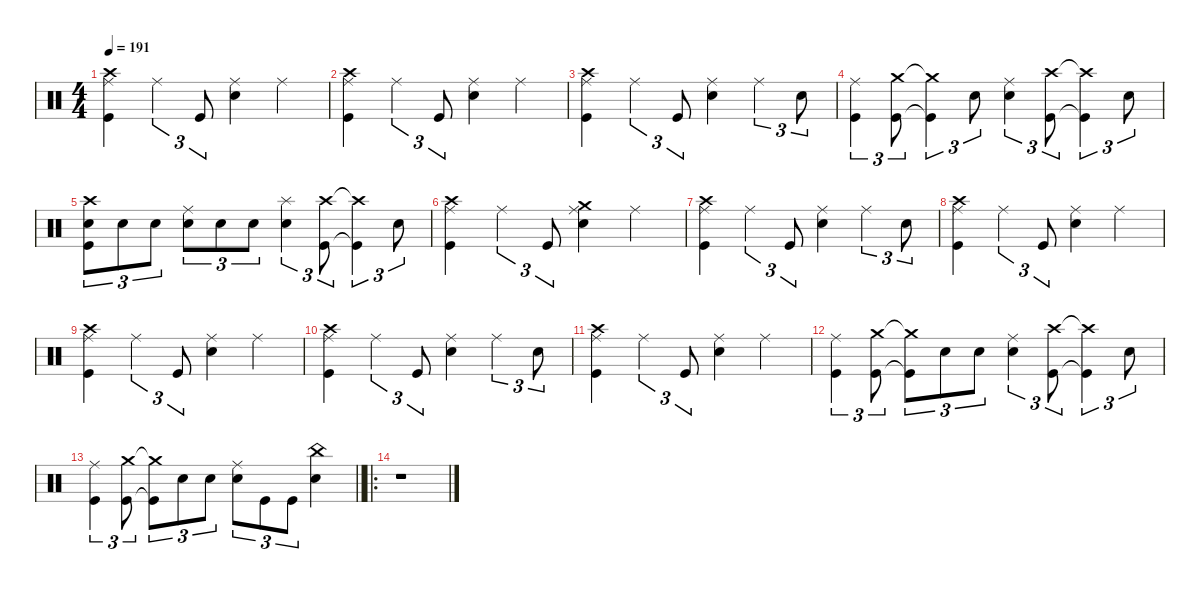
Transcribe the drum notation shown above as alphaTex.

\defaultSystemsLayout 4
\hideDynamics
\bracketExtendMode nobrackets
\singleTrackTrackNamePolicy hidden
\multiTrackTrackNamePolicy hidden
\firstSystemTrackNameMode fullname
\firstSystemTrackNameOrientation horizontal
\otherSystemsTrackNameOrientation horizontal
\track ("Drumkit" "drm.") {instrument percussion}
\staff {score}
\articulation defaults
\ts (4 4)
\tempo 191
\clef neutral
\ks c
("Kick (hit)" "Crash high (hit)" "Ride (middle)").4{dy f beam Down} "Ride (middle)".4{tu (3 2) dy mp beam Down} "Kick (hit)".8{tu (3 2) dy f beam Up} ("Snare (hit) 2" "Ride (middle)").4{beam Down} "Ride (middle)".4{dy mp beam Down} |
("Kick (hit)" "Crash high (hit)" "Ride (middle)").4{dy f beam Down} "Ride (middle)".4{tu (3 2) dy mp beam Down} "Kick (hit)".8{tu (3 2) dy f beam Up} ("Snare (hit) 2" "Ride (middle)").4{beam Down} "Ride (middle)".4{dy mp beam Down} |
("Kick (hit)" "Crash high (hit)" "Ride (middle)").4{dy f beam Down} "Ride (middle)".4{tu (3 2) dy mp beam Down} "Kick (hit)".8{tu (3 2) dy f beam Up} ("Snare (hit) 2" "Ride (middle)").4{beam Down} "Ride (middle)".4{tu (3 2) dy mp beam Down} "Snare (hit) 2".8{tu (3 2) dy f beam Down} |
("Kick (hit)" "Ride (middle)").4{tu (3 2) beam Down} ("Kick (hit)" "Crash medium (hit)").8{tu (3 2) beam Down} ("Kick (hit)"{t} "Crash medium (hit)"{t}).4{tu (3 2) beam Down} "Snare (hit) 2".8{tu (3 2) beam Down} ("Snare (hit) 2" "Ride (middle)").4{tu (3 2) beam Down} ("Kick (hit)" "Crash high (hit)").8{tu (3 2) beam Down} ("Kick (hit)"{t} "Crash high (hit)"{t}).4{tu (3 2) beam Down} "Snare (hit) 2".8{tu (3 2) beam Down} |
("Kick (hit)" "Crash high (hit)" "Snare (hit) 2").8{tu (3 2) beam Down} "Snare (hit) 2".8{tu (3 2) beam Down} "Snare (hit) 2".8{tu (3 2) beam Down} ("Ride (middle)" "Snare (hit) 2").8{tu (3 2) dy mp beam Down} "Snare (hit) 2".8{tu (3 2) dy f beam Down} "Snare (hit) 2".8{tu (3 2) beam Down} ("Snare (hit) 2" "Splash (hit)").4{tu (3 2) beam Down} ("Kick (hit)" "Crash high (hit)").8{tu (3 2) beam Down} ("Kick (hit)"{t} "Crash high (hit)"{t}).4{tu (3 2) beam Down} "Snare (hit) 2".8{tu (3 2) beam Down} |
("Kick (hit)" "Crash high (hit)" "Ride (middle)").4{beam Down} "Ride (middle)".4{tu (3 2) dy mp beam Down} "Kick (hit)".8{tu (3 2) dy f beam Up} ("Snare (hit) 2" "Ride (middle)" "Crash medium (hit)").4{beam Down} "Ride (middle)".4{dy mp beam Down} |
("Kick (hit)" "Crash high (hit)" "Ride (middle)").4{dy f beam Down} "Ride (middle)".4{tu (3 2) dy mp beam Down} "Kick (hit)".8{tu (3 2) dy f beam Up} ("Snare (hit) 2" "Ride (middle)").4{beam Down} "Ride (middle)".4{tu (3 2) dy mp beam Down} "Snare (hit) 2".8{tu (3 2) dy f beam Down} |
("Kick (hit)" "Crash high (hit)" "Ride (middle)").4{beam Down} "Ride (middle)".4{tu (3 2) dy mp beam Down} "Kick (hit)".8{tu (3 2) dy f beam Up} ("Snare (hit) 2" "Ride (middle)").4{beam Down} "Ride (middle)".4{dy mp beam Down} |
("Kick (hit)" "Crash high (hit)" "Ride (middle)").4{dy f beam Down} "Ride (middle)".4{tu (3 2) dy mp beam Down} "Kick (hit)".8{tu (3 2) dy f beam Up} ("Snare (hit) 2" "Ride (middle)").4{beam Down} "Ride (middle)".4{dy mp beam Down} |
("Kick (hit)" "Crash high (hit)" "Ride (middle)").4{dy f beam Down} "Ride (middle)".4{tu (3 2) dy mp beam Down} "Kick (hit)".8{tu (3 2) dy f beam Up} ("Snare (hit) 2" "Ride (middle)").4{beam Down} "Ride (middle)".4{tu (3 2) dy mp beam Down} "Snare (hit) 2".8{tu (3 2) dy f beam Down} |
("Kick (hit)" "Crash high (hit)" "Ride (middle)").4{beam Down} "Ride (middle)".4{tu (3 2) dy mp beam Down} "Kick (hit)".8{tu (3 2) dy f beam Up} ("Snare (hit) 2" "Ride (middle)").4{beam Down} "Ride (middle)".4{dy mp beam Down} |
("Kick (hit)" "Ride (middle)").4{tu (3 2) dy f beam Down} ("Kick (hit)" "Crash medium (hit)").8{tu (3 2) beam Down} ("Kick (hit)"{t} "Crash medium (hit)"{t}).8{tu (3 2) beam Down} "Snare (hit) 2".8{tu (3 2) beam Down} "Snare (hit) 2".8{tu (3 2) beam Down} ("Snare (hit) 2" "Ride (middle)").4{tu (3 2) beam Down} ("Kick (hit)" "Crash high (hit)").8{tu (3 2) beam Down} ("Kick (hit)"{t} "Crash high (hit)"{t}).4{tu (3 2) beam Down} "Snare (hit) 2".8{tu (3 2) beam Down} |
\barLineRight lightlight
("Kick (hit)" "Ride (middle)").4{tu (3 2) beam Down} ("Kick (hit)" "Crash medium (hit)").8{tu (3 2) beam Down} ("Kick (hit)"{t} "Crash medium (hit)"{t}).8{tu (3 2) beam Down} "Snare (hit) 2".8{tu (3 2) beam Down} "Snare (hit) 2".8{tu (3 2) beam Down} ("Snare (hit) 2" "Ride (middle)").8{tu (3 2) beam Down} "Kick (hit)".8{tu (3 2) beam Down} "Kick (hit)".8{tu (3 2) beam Down} ("Snare (hit) 2" "China (hit)").4{dy ff beam Down} |
\ro
r.1{beam Down}
